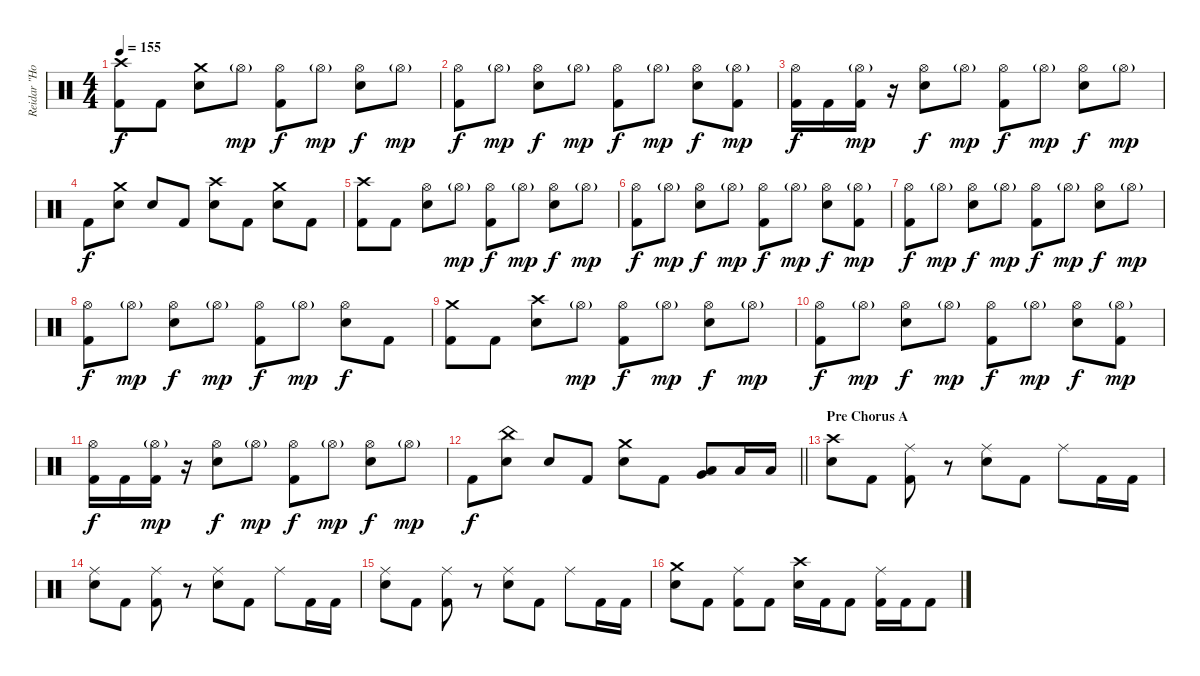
\track ("Reidar \"Horgh\" Horghagen " "Reidar \"Ho") {instrument percussion}
\staff {score}
\articulation defaults
\ts (4 4)
\tempo 155
\clef neutral
\ks c
("Crash high (hit)" "Kick (hit) 2").8{dy f} "Kick (hit) 2".8 ("Crash medium (hit)" "Snare (hit) 2").8 "Hi-Hat (open)"{g}.8{dy mp} ("Hi-Hat (open)" "Kick (hit) 2").8{dy f} "Hi-Hat (open)"{g}.8{dy mp} ("Hi-Hat (open)" "Snare (hit) 2").8{dy f} "Hi-Hat (open)"{g}.8{dy mp} |
("Hi-Hat (open)" "Kick (hit) 2").8{dy f} "Hi-Hat (open)"{g}.8{dy mp} ("Hi-Hat (open)" "Snare (hit) 2").8{dy f} "Hi-Hat (open)"{g}.8{dy mp} ("Hi-Hat (open)" "Kick (hit) 2").8{dy f} "Hi-Hat (open)"{g}.8{dy mp} ("Hi-Hat (open)" "Snare (hit) 2").8{dy f} ("Hi-Hat (open)"{g} "Kick (hit) 2").8{dy mp} |
("Hi-Hat (open)" "Kick (hit) 2").16{dy f} "Kick (hit) 2".16 ("Hi-Hat (open)"{g} "Kick (hit) 2").16{dy mp} r.16 ("Hi-Hat (open)" "Snare (hit) 2").8{dy f} "Hi-Hat (open)"{g}.8{dy mp} ("Hi-Hat (open)" "Kick (hit) 2").8{dy f} "Hi-Hat (open)"{g}.8{dy mp} ("Hi-Hat (open)" "Snare (hit) 2").8{dy f} "Hi-Hat (open)"{g}.8{dy mp} |
"Kick (hit) 2".8{dy f} ("Crash medium (hit)" "Snare (hit) 2").8 "Snare (hit) 2".8 "Kick (hit) 2".8 ("Crash high (hit)" "Snare (hit) 2").8 "Kick (hit) 2".8 ("Crash medium (hit)" "Snare (hit) 2").8 "Kick (hit) 2".8 |
("Crash high (hit)" "Kick (hit) 2").8 "Kick (hit) 2".8 ("Hi-Hat (open)" "Snare (hit) 2").8 "Hi-Hat (open)"{g}.8{dy mp} ("Hi-Hat (open)" "Kick (hit) 2").8{dy f} "Hi-Hat (open)"{g}.8{dy mp} ("Hi-Hat (open)" "Snare (hit) 2").8{dy f} "Hi-Hat (open)"{g}.8{dy mp} |
("Hi-Hat (open)" "Kick (hit) 2").8{dy f} "Hi-Hat (open)"{g}.8{dy mp} ("Hi-Hat (open)" "Snare (hit) 2").8{dy f} "Hi-Hat (open)"{g}.8{dy mp} ("Hi-Hat (open)" "Kick (hit) 2").8{dy f} "Hi-Hat (open)"{g}.8{dy mp} ("Hi-Hat (open)" "Snare (hit) 2").8{dy f} ("Hi-Hat (open)"{g} "Kick (hit) 2").8{dy mp} |
("Hi-Hat (open)" "Kick (hit) 2").8{dy f} "Hi-Hat (open)"{g}.8{dy mp} ("Hi-Hat (open)" "Snare (hit) 2").8{dy f} "Hi-Hat (open)"{g}.8{dy mp} ("Hi-Hat (open)" "Kick (hit) 2").8{dy f} "Hi-Hat (open)"{g}.8{dy mp} ("Hi-Hat (open)" "Snare (hit) 2").8{dy f} "Hi-Hat (open)"{g}.8{dy mp} |
("Hi-Hat (open)" "Kick (hit) 2").8{dy f} "Hi-Hat (open)"{g}.8{dy mp} ("Hi-Hat (open)" "Snare (hit) 2").8{dy f} "Hi-Hat (open)"{g}.8{dy mp} ("Hi-Hat (open)" "Kick (hit) 2").8{dy f} "Hi-Hat (open)"{g}.8{dy mp} ("Hi-Hat (open)" "Snare (hit) 2").8{dy f} "Kick (hit) 2".8 |
("Crash medium (hit)" "Kick (hit) 2").8 "Kick (hit) 2".8 ("Crash high (hit)" "Snare (hit) 2").8 "Hi-Hat (open)"{g}.8{dy mp} ("Hi-Hat (open)" "Kick (hit) 2").8{dy f} "Hi-Hat (open)"{g}.8{dy mp} ("Hi-Hat (open)" "Snare (hit) 2").8{dy f} "Hi-Hat (open)"{g}.8{dy mp} |
("Hi-Hat (open)" "Kick (hit) 2").8{dy f} "Hi-Hat (open)"{g}.8{dy mp} ("Hi-Hat (open)" "Snare (hit) 2").8{dy f} "Hi-Hat (open)"{g}.8{dy mp} ("Hi-Hat (open)" "Kick (hit) 2").8{dy f} "Hi-Hat (open)"{g}.8{dy mp} ("Hi-Hat (open)" "Snare (hit) 2").8{dy f} ("Hi-Hat (open)"{g} "Kick (hit) 2").8{dy mp} |
("Hi-Hat (open)" "Kick (hit) 2").16{dy f} "Kick (hit) 2".16 ("Hi-Hat (open)"{g} "Kick (hit) 2").16{dy mp} r.16 ("Hi-Hat (open)" "Snare (hit) 2").8{dy f} "Hi-Hat (open)"{g}.8{dy mp} ("Hi-Hat (open)" "Kick (hit) 2").8{dy f} "Hi-Hat (open)"{g}.8{dy mp} ("Hi-Hat (open)" "Snare (hit) 2").8{dy f} "Hi-Hat (open)"{g}.8{dy mp} |
\barLineRight lightlight "Kick (hit) 2".8{dy f}
("China (hit)" "Snare (hit) 2").8 "Snare (hit) 2".8 "Kick (hit) 2".8 ("Crash medium (hit)" "Snare (hit) 2").8 "Kick (hit) 2".8 ("Low Tom (hit)" "Very Low Tom (hit)").8 "Low Floor Tom (hit)".16 "Low Floor Tom (hit)".16 |
\section ("" "Pre Chorus A")
("Crash high (hit)" "Snare (hit) 2").8 "Kick (hit) 2".8 ("Ride (middle)" "Kick (hit) 2").8 r.8 ("Ride (middle)" "Snare (hit) 2").8 "Kick (hit) 2".8 "Ride (middle)".8 "Kick (hit) 2".16 "Kick (hit) 2".16 |
("Ride (middle)" "Snare (hit) 2").8 "Kick (hit) 2".8 ("Ride (middle)" "Kick (hit) 2").8 r.8 ("Ride (middle)" "Snare (hit) 2").8 "Kick (hit) 2".8 "Ride (middle)".8 "Kick (hit) 2".16 "Kick (hit) 2".16 |
("Ride (middle)" "Snare (hit) 2").8 "Kick (hit) 2".8 ("Ride (middle)" "Kick (hit) 2").8 r.8 ("Ride (middle)" "Snare (hit) 2").8 "Kick (hit) 2".8 "Ride (middle)".8 "Kick (hit) 2".16 "Kick (hit) 2".16 |
("Crash medium (hit)" "Snare (hit) 2").8 "Kick (hit) 2".8 ("Ride (middle)" "Kick (hit) 2").8 "Kick (hit) 2".8 ("Crash high (hit)" "Snare (hit) 2").16 "Kick (hit) 2".16 "Kick (hit) 2".8 ("Ride (middle)" "Kick (hit) 2").16 "Kick (hit) 2".16 "Kick (hit) 2".8
